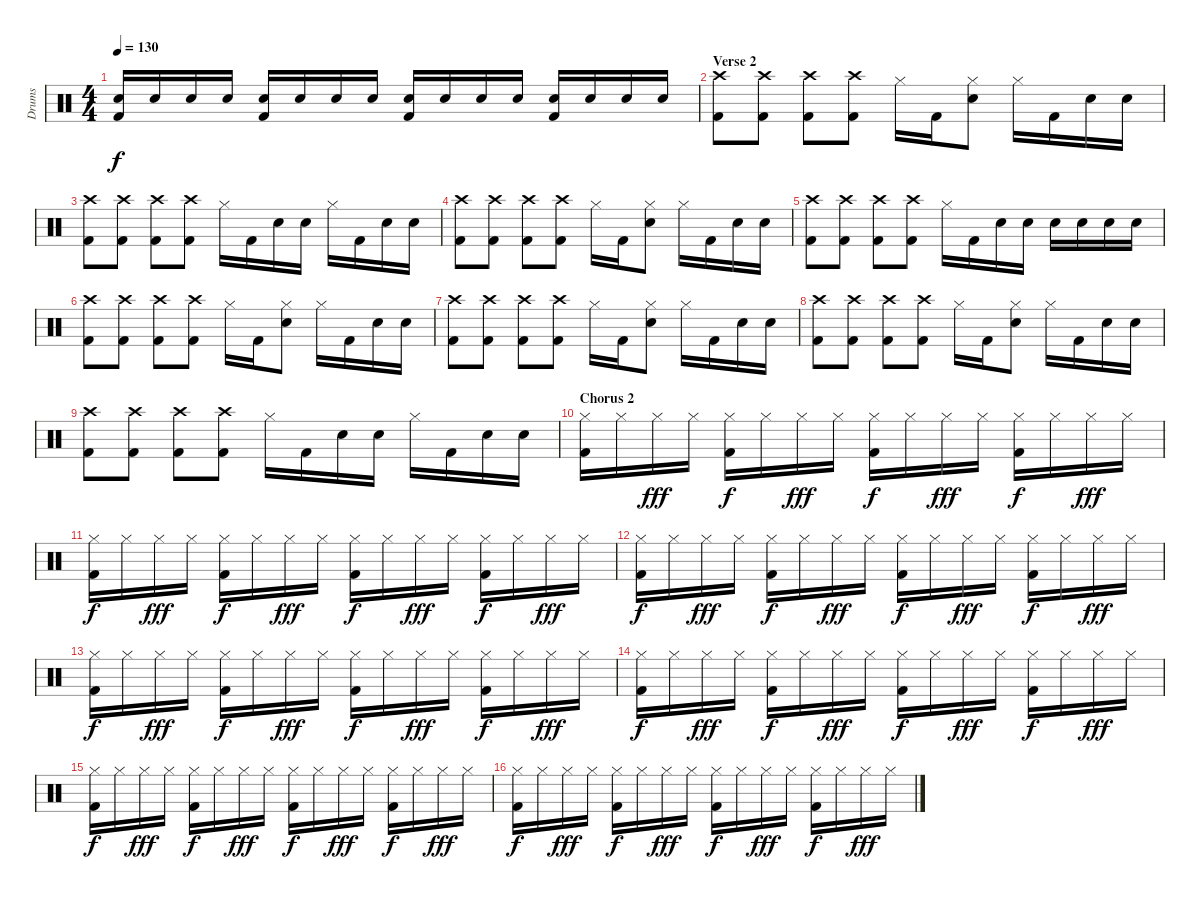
\track ("Drums" "Drums") {instrument percussion}
\staff {score}
\articulation defaults
\ts (4 4)
\tempo 130
\clef neutral
\ks c
("Electric Snare (hit)" "Kick (hit) 2").16{dy f} "Electric Snare (hit)".16 "Electric Snare (hit)".16 "Electric Snare (hit)".16 ("Electric Snare (hit)" "Kick (hit) 2").16 "Electric Snare (hit)".16 "Electric Snare (hit)".16 "Electric Snare (hit)".16 ("Electric Snare (hit)" "Kick (hit) 2").16 "Electric Snare (hit)".16 "Electric Snare (hit)".16 "Electric Snare (hit)".16 ("Electric Snare (hit)" "Kick (hit) 2").16 "Electric Snare (hit)".16 "Electric Snare (hit)".16 "Electric Snare (hit)".16 |
\section ("" "Verse 2")
("Crash high (hit)" "Kick (hit) 2").8 ("Crash high (hit)" "Kick (hit) 2").8 ("Crash high (hit)" "Kick (hit) 2").8 ("Crash high (hit)" "Kick (hit) 2").8 "Hi-Hat (closed)".16 "Kick (hit) 2".16 ("Hi-Hat (closed)" "Electric Snare (hit)").8 "Hi-Hat (closed)".16 "Kick (hit) 2".16 "Electric Snare (hit)".16 "Electric Snare (hit)".16 |
("Crash high (hit)" "Kick (hit) 2").8 ("Crash high (hit)" "Kick (hit) 2").8 ("Crash high (hit)" "Kick (hit) 2").8 ("Crash high (hit)" "Kick (hit) 2").8 "Hi-Hat (closed)".16 "Kick (hit) 2".16 "Electric Snare (hit)".16 "Electric Snare (hit)".16 "Hi-Hat (closed)".16 "Kick (hit) 2".16 "Electric Snare (hit)".16 "Electric Snare (hit)".16 |
("Crash high (hit)" "Kick (hit) 2").8 ("Crash high (hit)" "Kick (hit) 2").8 ("Crash high (hit)" "Kick (hit) 2").8 ("Crash high (hit)" "Kick (hit) 2").8 "Hi-Hat (closed)".16 "Kick (hit) 2".16 ("Hi-Hat (closed)" "Electric Snare (hit)").8 "Hi-Hat (closed)".16 "Kick (hit) 2".16 "Electric Snare (hit)".16 "Electric Snare (hit)".16 |
("Crash high (hit)" "Kick (hit) 2").8 ("Crash high (hit)" "Kick (hit) 2").8 ("Crash high (hit)" "Kick (hit) 2").8 ("Crash high (hit)" "Kick (hit) 2").8 "Hi-Hat (closed)".16 "Kick (hit) 2".16 "Electric Snare (hit)".16 "Electric Snare (hit)".16 "Electric Snare (hit)".16 "Electric Snare (hit)".16 "Electric Snare (hit)".16 "Electric Snare (hit)".16 |
("Crash high (hit)" "Kick (hit) 2").8 ("Crash high (hit)" "Kick (hit) 2").8 ("Crash high (hit)" "Kick (hit) 2").8 ("Crash high (hit)" "Kick (hit) 2").8 "Hi-Hat (closed)".16 "Kick (hit) 2".16 ("Hi-Hat (closed)" "Electric Snare (hit)").8 "Hi-Hat (closed)".16 "Kick (hit) 2".16 "Electric Snare (hit)".16 "Electric Snare (hit)".16 |
("Crash high (hit)" "Kick (hit) 2").8 ("Crash high (hit)" "Kick (hit) 2").8 ("Crash high (hit)" "Kick (hit) 2").8 ("Crash high (hit)" "Kick (hit) 2").8 "Hi-Hat (closed)".16 "Kick (hit) 2".16 ("Hi-Hat (closed)" "Electric Snare (hit)").8 "Hi-Hat (closed)".16 "Kick (hit) 2".16 "Electric Snare (hit)".16 "Electric Snare (hit)".16 |
("Crash high (hit)" "Kick (hit) 2").8 ("Crash high (hit)" "Kick (hit) 2").8 ("Crash high (hit)" "Kick (hit) 2").8 ("Crash high (hit)" "Kick (hit) 2").8 "Hi-Hat (closed)".16 "Kick (hit) 2".16 ("Hi-Hat (closed)" "Electric Snare (hit)").8 "Hi-Hat (closed)".16 "Kick (hit) 2".16 "Electric Snare (hit)".16 "Electric Snare (hit)".16 |
("Crash high (hit)" "Kick (hit) 2").8 ("Crash high (hit)" "Kick (hit) 2").8 ("Crash high (hit)" "Kick (hit) 2").8 ("Crash high (hit)" "Kick (hit) 2").8 "Hi-Hat (closed)".16 "Kick (hit) 2".16 "Electric Snare (hit)".16 "Electric Snare (hit)".16 "Hi-Hat (closed)".16 "Kick (hit) 2".16 "Electric Snare (hit)".16 "Electric Snare (hit)".16 |
\section ("" "Chorus 2")
("Hi-Hat (closed)" "Kick (hit) 2").16 "Hi-Hat (closed)".16 "Hi-Hat (closed)".16{dy fff} "Hi-Hat (closed)".16 ("Hi-Hat (closed)" "Kick (hit) 2").16{dy f} "Hi-Hat (closed)".16 "Hi-Hat (closed)".16{dy fff} "Hi-Hat (closed)".16 ("Hi-Hat (closed)" "Kick (hit) 2").16{dy f} "Hi-Hat (closed)".16 "Hi-Hat (closed)".16{dy fff} "Hi-Hat (closed)".16 ("Hi-Hat (closed)" "Kick (hit) 2").16{dy f} "Hi-Hat (closed)".16 "Hi-Hat (closed)".16{dy fff} "Hi-Hat (closed)".16 |
("Hi-Hat (closed)" "Kick (hit) 2").16{dy f} "Hi-Hat (closed)".16 "Hi-Hat (closed)".16{dy fff} "Hi-Hat (closed)".16 ("Hi-Hat (closed)" "Kick (hit) 2").16{dy f} "Hi-Hat (closed)".16 "Hi-Hat (closed)".16{dy fff} "Hi-Hat (closed)".16 ("Hi-Hat (closed)" "Kick (hit) 2").16{dy f} "Hi-Hat (closed)".16 "Hi-Hat (closed)".16{dy fff} "Hi-Hat (closed)".16 ("Hi-Hat (closed)" "Kick (hit) 2").16{dy f} "Hi-Hat (closed)".16 "Hi-Hat (closed)".16{dy fff} "Hi-Hat (closed)".16 |
("Hi-Hat (closed)" "Kick (hit) 2").16{dy f} "Hi-Hat (closed)".16 "Hi-Hat (closed)".16{dy fff} "Hi-Hat (closed)".16 ("Hi-Hat (closed)" "Kick (hit) 2").16{dy f} "Hi-Hat (closed)".16 "Hi-Hat (closed)".16{dy fff} "Hi-Hat (closed)".16 ("Hi-Hat (closed)" "Kick (hit) 2").16{dy f} "Hi-Hat (closed)".16 "Hi-Hat (closed)".16{dy fff} "Hi-Hat (closed)".16 ("Hi-Hat (closed)" "Kick (hit) 2").16{dy f} "Hi-Hat (closed)".16 "Hi-Hat (closed)".16{dy fff} "Hi-Hat (closed)".16 |
("Hi-Hat (closed)" "Kick (hit) 2").16{dy f} "Hi-Hat (closed)".16 "Hi-Hat (closed)".16{dy fff} "Hi-Hat (closed)".16 ("Hi-Hat (closed)" "Kick (hit) 2").16{dy f} "Hi-Hat (closed)".16 "Hi-Hat (closed)".16{dy fff} "Hi-Hat (closed)".16 ("Hi-Hat (closed)" "Kick (hit) 2").16{dy f} "Hi-Hat (closed)".16 "Hi-Hat (closed)".16{dy fff} "Hi-Hat (closed)".16 ("Hi-Hat (closed)" "Kick (hit) 2").16{dy f} "Hi-Hat (closed)".16 "Hi-Hat (closed)".16{dy fff} "Hi-Hat (closed)".16 |
("Hi-Hat (closed)" "Kick (hit) 2").16{dy f} "Hi-Hat (closed)".16 "Hi-Hat (closed)".16{dy fff} "Hi-Hat (closed)".16 ("Hi-Hat (closed)" "Kick (hit) 2").16{dy f} "Hi-Hat (closed)".16 "Hi-Hat (closed)".16{dy fff} "Hi-Hat (closed)".16 ("Hi-Hat (closed)" "Kick (hit) 2").16{dy f} "Hi-Hat (closed)".16 "Hi-Hat (closed)".16{dy fff} "Hi-Hat (closed)".16 ("Hi-Hat (closed)" "Kick (hit) 2").16{dy f} "Hi-Hat (closed)".16 "Hi-Hat (closed)".16{dy fff} "Hi-Hat (closed)".16 |
("Hi-Hat (closed)" "Kick (hit) 2").16{dy f} "Hi-Hat (closed)".16 "Hi-Hat (closed)".16{dy fff} "Hi-Hat (closed)".16 ("Hi-Hat (closed)" "Kick (hit) 2").16{dy f} "Hi-Hat (closed)".16 "Hi-Hat (closed)".16{dy fff} "Hi-Hat (closed)".16 ("Hi-Hat (closed)" "Kick (hit) 2").16{dy f} "Hi-Hat (closed)".16 "Hi-Hat (closed)".16{dy fff} "Hi-Hat (closed)".16 ("Hi-Hat (closed)" "Kick (hit) 2").16{dy f} "Hi-Hat (closed)".16 "Hi-Hat (closed)".16{dy fff} "Hi-Hat (closed)".16 |
("Hi-Hat (closed)" "Kick (hit) 2").16{dy f} "Hi-Hat (closed)".16 "Hi-Hat (closed)".16{dy fff} "Hi-Hat (closed)".16 ("Hi-Hat (closed)" "Kick (hit) 2").16{dy f} "Hi-Hat (closed)".16 "Hi-Hat (closed)".16{dy fff} "Hi-Hat (closed)".16 ("Hi-Hat (closed)" "Kick (hit) 2").16{dy f} "Hi-Hat (closed)".16 "Hi-Hat (closed)".16{dy fff} "Hi-Hat (closed)".16 ("Hi-Hat (closed)" "Kick (hit) 2").16{dy f} "Hi-Hat (closed)".16 "Hi-Hat (closed)".16{dy fff} "Hi-Hat (closed)".16
